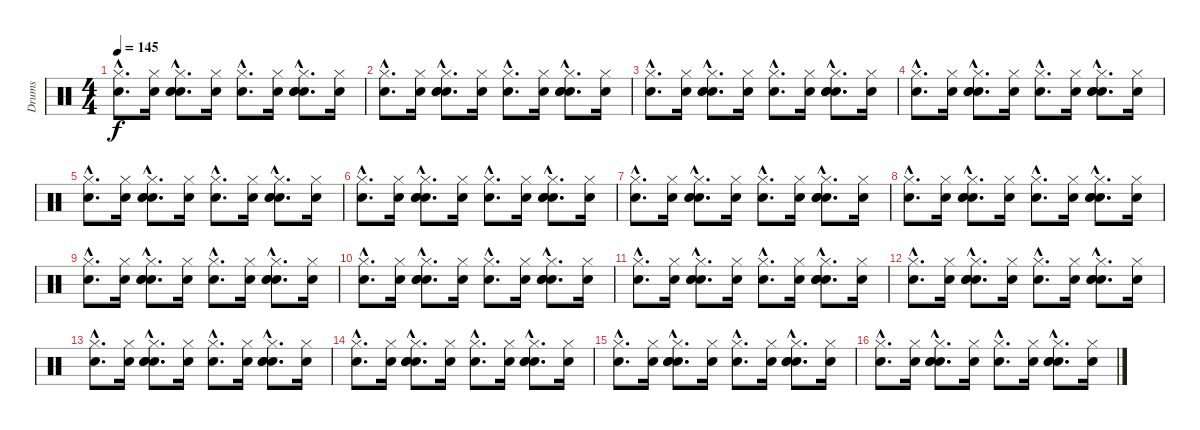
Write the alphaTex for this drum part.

\track ("Drums" "Drums") {instrument percussion}
\staff {score}
\articulation defaults
\ts (4 4)
\tempo 145
\clef neutral
\ks c
("Hi-Hat (closed)"{hac} "Snare (hit) 2"{hac}).8{d dy f} ("Hi-Hat (closed)" "Snare (hit) 2").16 ("Hi-Hat (closed)"{hac} "Snare (hit) 2"{hac} "Electric Snare (hit)"{hac} "Electric Snare (hit)"{hac}).8{d} ("Hi-Hat (closed)" "Snare (hit) 2").16 ("Hi-Hat (closed)"{hac} "Snare (hit) 2"{hac}).8{d} ("Hi-Hat (closed)" "Snare (hit) 2").16 ("Hi-Hat (closed)"{hac} "Snare (hit) 2"{hac} "Electric Snare (hit)"{hac} "Electric Snare (hit)"{hac}).8{d} ("Hi-Hat (closed)" "Snare (hit) 2").16 |
("Hi-Hat (closed)"{hac} "Snare (hit) 2"{hac}).8{d} ("Hi-Hat (closed)" "Snare (hit) 2").16 ("Hi-Hat (closed)"{hac} "Snare (hit) 2"{hac} "Electric Snare (hit)"{hac} "Electric Snare (hit)"{hac}).8{d} ("Hi-Hat (closed)" "Snare (hit) 2").16 ("Hi-Hat (closed)"{hac} "Snare (hit) 2"{hac}).8{d} ("Hi-Hat (closed)" "Snare (hit) 2").16 ("Hi-Hat (closed)"{hac} "Snare (hit) 2"{hac} "Electric Snare (hit)"{hac} "Electric Snare (hit)"{hac}).8{d} ("Hi-Hat (closed)" "Snare (hit) 2").16 |
("Hi-Hat (closed)"{hac} "Snare (hit) 2"{hac}).8{d} ("Hi-Hat (closed)" "Snare (hit) 2").16 ("Hi-Hat (closed)"{hac} "Snare (hit) 2"{hac} "Electric Snare (hit)"{hac} "Electric Snare (hit)"{hac}).8{d} ("Hi-Hat (closed)" "Snare (hit) 2").16 ("Hi-Hat (closed)"{hac} "Snare (hit) 2"{hac}).8{d} ("Hi-Hat (closed)" "Snare (hit) 2").16 ("Hi-Hat (closed)"{hac} "Snare (hit) 2"{hac} "Electric Snare (hit)"{hac} "Electric Snare (hit)"{hac}).8{d} ("Hi-Hat (closed)" "Snare (hit) 2").16 |
("Hi-Hat (closed)"{hac} "Snare (hit) 2"{hac}).8{d} ("Hi-Hat (closed)" "Snare (hit) 2").16 ("Hi-Hat (closed)"{hac} "Snare (hit) 2"{hac} "Electric Snare (hit)"{hac} "Electric Snare (hit)"{hac}).8{d} ("Hi-Hat (closed)" "Snare (hit) 2").16 ("Hi-Hat (closed)"{hac} "Snare (hit) 2"{hac}).8{d} ("Hi-Hat (closed)" "Snare (hit) 2").16 ("Hi-Hat (closed)"{hac} "Snare (hit) 2"{hac} "Electric Snare (hit)"{hac} "Electric Snare (hit)"{hac}).8{d} ("Hi-Hat (closed)" "Snare (hit) 2").16 |
("Hi-Hat (closed)"{hac} "Snare (hit) 2"{hac}).8{d} ("Hi-Hat (closed)" "Snare (hit) 2").16 ("Hi-Hat (closed)"{hac} "Snare (hit) 2"{hac} "Electric Snare (hit)"{hac} "Electric Snare (hit)"{hac}).8{d} ("Hi-Hat (closed)" "Snare (hit) 2").16 ("Hi-Hat (closed)"{hac} "Snare (hit) 2"{hac}).8{d} ("Hi-Hat (closed)" "Snare (hit) 2").16 ("Hi-Hat (closed)"{hac} "Snare (hit) 2"{hac} "Electric Snare (hit)"{hac} "Electric Snare (hit)"{hac}).8{d} ("Hi-Hat (closed)" "Snare (hit) 2").16 |
("Hi-Hat (closed)"{hac} "Snare (hit) 2"{hac}).8{d} ("Hi-Hat (closed)" "Snare (hit) 2").16 ("Hi-Hat (closed)"{hac} "Snare (hit) 2"{hac} "Electric Snare (hit)"{hac} "Electric Snare (hit)"{hac}).8{d} ("Hi-Hat (closed)" "Snare (hit) 2").16 ("Hi-Hat (closed)"{hac} "Snare (hit) 2"{hac}).8{d} ("Hi-Hat (closed)" "Snare (hit) 2").16 ("Hi-Hat (closed)"{hac} "Snare (hit) 2"{hac} "Electric Snare (hit)"{hac} "Electric Snare (hit)"{hac}).8{d} ("Hi-Hat (closed)" "Snare (hit) 2").16 |
("Hi-Hat (closed)"{hac} "Snare (hit) 2"{hac}).8{d} ("Hi-Hat (closed)" "Snare (hit) 2").16 ("Hi-Hat (closed)"{hac} "Snare (hit) 2"{hac} "Electric Snare (hit)"{hac} "Electric Snare (hit)"{hac}).8{d} ("Hi-Hat (closed)" "Snare (hit) 2").16 ("Hi-Hat (closed)"{hac} "Snare (hit) 2"{hac}).8{d} ("Hi-Hat (closed)" "Snare (hit) 2").16 ("Hi-Hat (closed)"{hac} "Snare (hit) 2"{hac} "Electric Snare (hit)"{hac} "Electric Snare (hit)"{hac}).8{d} ("Hi-Hat (closed)" "Snare (hit) 2").16 |
("Hi-Hat (closed)"{hac} "Snare (hit) 2"{hac}).8{d} ("Hi-Hat (closed)" "Snare (hit) 2").16 ("Hi-Hat (closed)"{hac} "Snare (hit) 2"{hac} "Electric Snare (hit)"{hac} "Electric Snare (hit)"{hac}).8{d} ("Hi-Hat (closed)" "Snare (hit) 2").16 ("Hi-Hat (closed)"{hac} "Snare (hit) 2"{hac}).8{d} ("Hi-Hat (closed)" "Snare (hit) 2").16 ("Hi-Hat (closed)"{hac} "Snare (hit) 2"{hac} "Electric Snare (hit)"{hac} "Electric Snare (hit)"{hac}).8{d} ("Hi-Hat (closed)" "Snare (hit) 2").16 |
("Hi-Hat (closed)"{hac} "Snare (hit) 2"{hac}).8{d} ("Hi-Hat (closed)" "Snare (hit) 2").16 ("Hi-Hat (closed)"{hac} "Snare (hit) 2"{hac} "Electric Snare (hit)"{hac} "Electric Snare (hit)"{hac}).8{d} ("Hi-Hat (closed)" "Snare (hit) 2").16 ("Hi-Hat (closed)"{hac} "Snare (hit) 2"{hac}).8{d} ("Hi-Hat (closed)" "Snare (hit) 2").16 ("Hi-Hat (closed)"{hac} "Snare (hit) 2"{hac} "Electric Snare (hit)"{hac} "Electric Snare (hit)"{hac}).8{d} ("Hi-Hat (closed)" "Snare (hit) 2").16 |
("Hi-Hat (closed)"{hac} "Snare (hit) 2"{hac}).8{d} ("Hi-Hat (closed)" "Snare (hit) 2").16 ("Hi-Hat (closed)"{hac} "Snare (hit) 2"{hac} "Electric Snare (hit)"{hac} "Electric Snare (hit)"{hac}).8{d} ("Hi-Hat (closed)" "Snare (hit) 2").16 ("Hi-Hat (closed)"{hac} "Snare (hit) 2"{hac}).8{d} ("Hi-Hat (closed)" "Snare (hit) 2").16 ("Hi-Hat (closed)"{hac} "Snare (hit) 2"{hac} "Electric Snare (hit)"{hac} "Electric Snare (hit)"{hac}).8{d} ("Hi-Hat (closed)" "Snare (hit) 2").16 |
("Hi-Hat (closed)"{hac} "Snare (hit) 2"{hac}).8{d} ("Hi-Hat (closed)" "Snare (hit) 2").16 ("Hi-Hat (closed)"{hac} "Snare (hit) 2"{hac} "Electric Snare (hit)"{hac} "Electric Snare (hit)"{hac}).8{d} ("Hi-Hat (closed)" "Snare (hit) 2").16 ("Hi-Hat (closed)"{hac} "Snare (hit) 2"{hac}).8{d} ("Hi-Hat (closed)" "Snare (hit) 2").16 ("Hi-Hat (closed)"{hac} "Snare (hit) 2"{hac} "Electric Snare (hit)"{hac} "Electric Snare (hit)"{hac}).8{d} ("Hi-Hat (closed)" "Snare (hit) 2").16 |
("Hi-Hat (closed)"{hac} "Snare (hit) 2"{hac}).8{d} ("Hi-Hat (closed)" "Snare (hit) 2").16 ("Hi-Hat (closed)"{hac} "Snare (hit) 2"{hac} "Electric Snare (hit)"{hac} "Electric Snare (hit)"{hac}).8{d} ("Hi-Hat (closed)" "Snare (hit) 2").16 ("Hi-Hat (closed)"{hac} "Snare (hit) 2"{hac}).8{d} ("Hi-Hat (closed)" "Snare (hit) 2").16 ("Hi-Hat (closed)"{hac} "Snare (hit) 2"{hac} "Electric Snare (hit)"{hac} "Electric Snare (hit)"{hac}).8{d} ("Hi-Hat (closed)" "Snare (hit) 2").16 |
("Hi-Hat (closed)"{hac} "Snare (hit) 2"{hac}).8{d} ("Hi-Hat (closed)" "Snare (hit) 2").16 ("Hi-Hat (closed)"{hac} "Snare (hit) 2"{hac} "Electric Snare (hit)"{hac} "Electric Snare (hit)"{hac}).8{d} ("Hi-Hat (closed)" "Snare (hit) 2").16 ("Hi-Hat (closed)"{hac} "Snare (hit) 2"{hac}).8{d} ("Hi-Hat (closed)" "Snare (hit) 2").16 ("Hi-Hat (closed)"{hac} "Snare (hit) 2"{hac} "Electric Snare (hit)"{hac} "Electric Snare (hit)"{hac}).8{d} ("Hi-Hat (closed)" "Snare (hit) 2").16 |
("Hi-Hat (closed)"{hac} "Snare (hit) 2"{hac}).8{d} ("Hi-Hat (closed)" "Snare (hit) 2").16 ("Hi-Hat (closed)"{hac} "Snare (hit) 2"{hac} "Electric Snare (hit)"{hac} "Electric Snare (hit)"{hac}).8{d} ("Hi-Hat (closed)" "Snare (hit) 2").16 ("Hi-Hat (closed)"{hac} "Snare (hit) 2"{hac}).8{d} ("Hi-Hat (closed)" "Snare (hit) 2").16 ("Hi-Hat (closed)"{hac} "Snare (hit) 2"{hac} "Electric Snare (hit)"{hac} "Electric Snare (hit)"{hac}).8{d} ("Hi-Hat (closed)" "Snare (hit) 2").16 |
("Hi-Hat (closed)"{hac} "Snare (hit) 2"{hac}).8{d} ("Hi-Hat (closed)" "Snare (hit) 2").16 ("Hi-Hat (closed)"{hac} "Snare (hit) 2"{hac} "Electric Snare (hit)"{hac} "Electric Snare (hit)"{hac}).8{d} ("Hi-Hat (closed)" "Snare (hit) 2").16 ("Hi-Hat (closed)"{hac} "Snare (hit) 2"{hac}).8{d} ("Hi-Hat (closed)" "Snare (hit) 2").16 ("Hi-Hat (closed)"{hac} "Snare (hit) 2"{hac} "Electric Snare (hit)"{hac} "Electric Snare (hit)"{hac}).8{d} ("Hi-Hat (closed)" "Snare (hit) 2").16 |
("Hi-Hat (closed)"{hac} "Snare (hit) 2"{hac}).8{d} ("Hi-Hat (closed)" "Snare (hit) 2").16 ("Hi-Hat (closed)"{hac} "Snare (hit) 2"{hac} "Electric Snare (hit)"{hac} "Electric Snare (hit)"{hac}).8{d} ("Hi-Hat (closed)" "Snare (hit) 2").16 ("Hi-Hat (closed)"{hac} "Snare (hit) 2"{hac}).8{d} ("Hi-Hat (closed)" "Snare (hit) 2").16 ("Hi-Hat (closed)"{hac} "Snare (hit) 2"{hac} "Electric Snare (hit)"{hac} "Electric Snare (hit)"{hac}).8{d} ("Hi-Hat (closed)" "Snare (hit) 2").16
